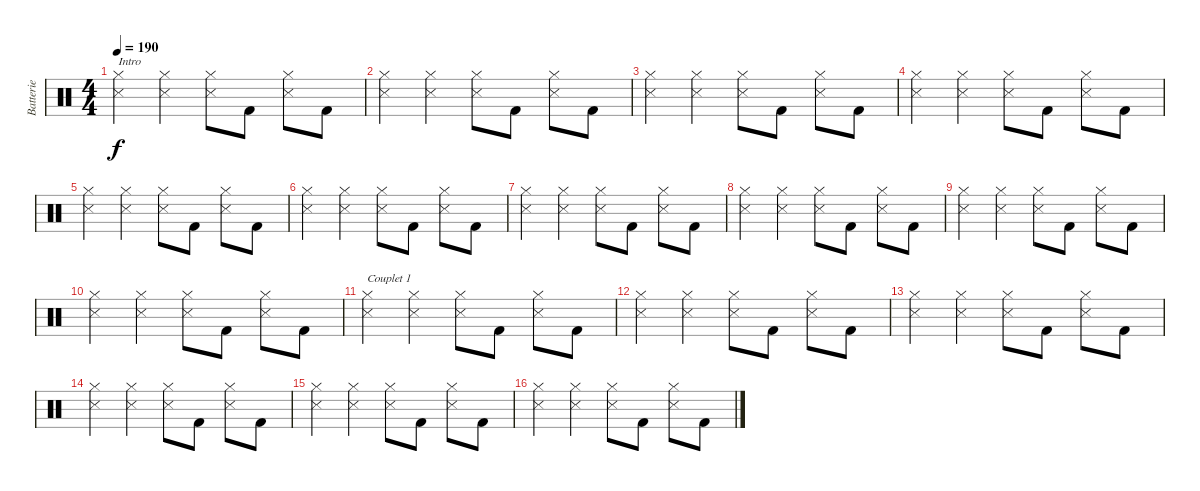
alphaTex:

\track ("Batterie" "Batterie") {instrument percussion}
\staff {score}
\articulation defaults
\ts (4 4)
\tempo 190
\clef neutral
\ks c
("Snare (side stick) 3" "Hi-Hat (closed)").4{txt "Intro" dy f} ("Snare (side stick) 3" "Hi-Hat (closed)").4 ("Snare (side stick) 3" "Hi-Hat (closed)").8 "Kick (hit) 2".8 ("Snare (side stick) 3" "Hi-Hat (closed)").8 "Kick (hit) 2".8 |
("Snare (side stick) 3" "Hi-Hat (closed)").4 ("Snare (side stick) 3" "Hi-Hat (closed)").4 ("Snare (side stick) 3" "Hi-Hat (closed)").8 "Kick (hit) 2".8 ("Snare (side stick) 3" "Hi-Hat (closed)").8 "Kick (hit) 2".8 |
("Snare (side stick) 3" "Hi-Hat (closed)").4 ("Snare (side stick) 3" "Hi-Hat (closed)").4 ("Snare (side stick) 3" "Hi-Hat (closed)").8 "Kick (hit) 2".8 ("Snare (side stick) 3" "Hi-Hat (closed)").8 "Kick (hit) 2".8 |
("Snare (side stick) 3" "Hi-Hat (closed)").4 ("Snare (side stick) 3" "Hi-Hat (closed)").4 ("Snare (side stick) 3" "Hi-Hat (closed)").8 "Kick (hit) 2".8 ("Snare (side stick) 3" "Hi-Hat (closed)").8 "Kick (hit) 2".8 |
("Snare (side stick) 3" "Hi-Hat (closed)").4 ("Snare (side stick) 3" "Hi-Hat (closed)").4 ("Snare (side stick) 3" "Hi-Hat (closed)").8 "Kick (hit) 2".8 ("Snare (side stick) 3" "Hi-Hat (closed)").8 "Kick (hit) 2".8 |
("Snare (side stick) 3" "Hi-Hat (closed)").4 ("Snare (side stick) 3" "Hi-Hat (closed)").4 ("Snare (side stick) 3" "Hi-Hat (closed)").8 "Kick (hit) 2".8 ("Snare (side stick) 3" "Hi-Hat (closed)").8 "Kick (hit) 2".8 |
("Snare (side stick) 3" "Hi-Hat (closed)").4 ("Snare (side stick) 3" "Hi-Hat (closed)").4 ("Snare (side stick) 3" "Hi-Hat (closed)").8 "Kick (hit) 2".8 ("Snare (side stick) 3" "Hi-Hat (closed)").8 "Kick (hit) 2".8 |
("Snare (side stick) 3" "Hi-Hat (closed)").4 ("Snare (side stick) 3" "Hi-Hat (closed)").4 ("Snare (side stick) 3" "Hi-Hat (closed)").8 "Kick (hit) 2".8 ("Snare (side stick) 3" "Hi-Hat (closed)").8 "Kick (hit) 2".8 |
("Snare (side stick) 3" "Hi-Hat (closed)").4 ("Snare (side stick) 3" "Hi-Hat (closed)").4 ("Snare (side stick) 3" "Hi-Hat (closed)").8 "Kick (hit) 2".8 ("Snare (side stick) 3" "Hi-Hat (closed)").8 "Kick (hit) 2".8 |
("Snare (side stick) 3" "Hi-Hat (closed)").4 ("Snare (side stick) 3" "Hi-Hat (closed)").4 ("Snare (side stick) 3" "Hi-Hat (closed)").8 "Kick (hit) 2".8 ("Snare (side stick) 3" "Hi-Hat (closed)").8 "Kick (hit) 2".8 |
("Snare (side stick) 3" "Hi-Hat (closed)").4{txt "Couplet 1"} ("Snare (side stick) 3" "Hi-Hat (closed)").4 ("Snare (side stick) 3" "Hi-Hat (closed)").8 "Kick (hit) 2".8 ("Snare (side stick) 3" "Hi-Hat (closed)").8 "Kick (hit) 2".8 |
("Snare (side stick) 3" "Hi-Hat (closed)").4 ("Snare (side stick) 3" "Hi-Hat (closed)").4 ("Snare (side stick) 3" "Hi-Hat (closed)").8 "Kick (hit) 2".8 ("Snare (side stick) 3" "Hi-Hat (closed)").8 "Kick (hit) 2".8 |
("Snare (side stick) 3" "Hi-Hat (closed)").4 ("Snare (side stick) 3" "Hi-Hat (closed)").4 ("Snare (side stick) 3" "Hi-Hat (closed)").8 "Kick (hit) 2".8 ("Snare (side stick) 3" "Hi-Hat (closed)").8 "Kick (hit) 2".8 |
("Snare (side stick) 3" "Hi-Hat (closed)").4 ("Snare (side stick) 3" "Hi-Hat (closed)").4 ("Snare (side stick) 3" "Hi-Hat (closed)").8 "Kick (hit) 2".8 ("Snare (side stick) 3" "Hi-Hat (closed)").8 "Kick (hit) 2".8 |
("Snare (side stick) 3" "Hi-Hat (closed)").4 ("Snare (side stick) 3" "Hi-Hat (closed)").4 ("Snare (side stick) 3" "Hi-Hat (closed)").8 "Kick (hit) 2".8 ("Snare (side stick) 3" "Hi-Hat (closed)").8 "Kick (hit) 2".8 |
("Snare (side stick) 3" "Hi-Hat (closed)").4 ("Snare (side stick) 3" "Hi-Hat (closed)").4 ("Snare (side stick) 3" "Hi-Hat (closed)").8 "Kick (hit) 2".8 ("Snare (side stick) 3" "Hi-Hat (closed)").8 "Kick (hit) 2".8
